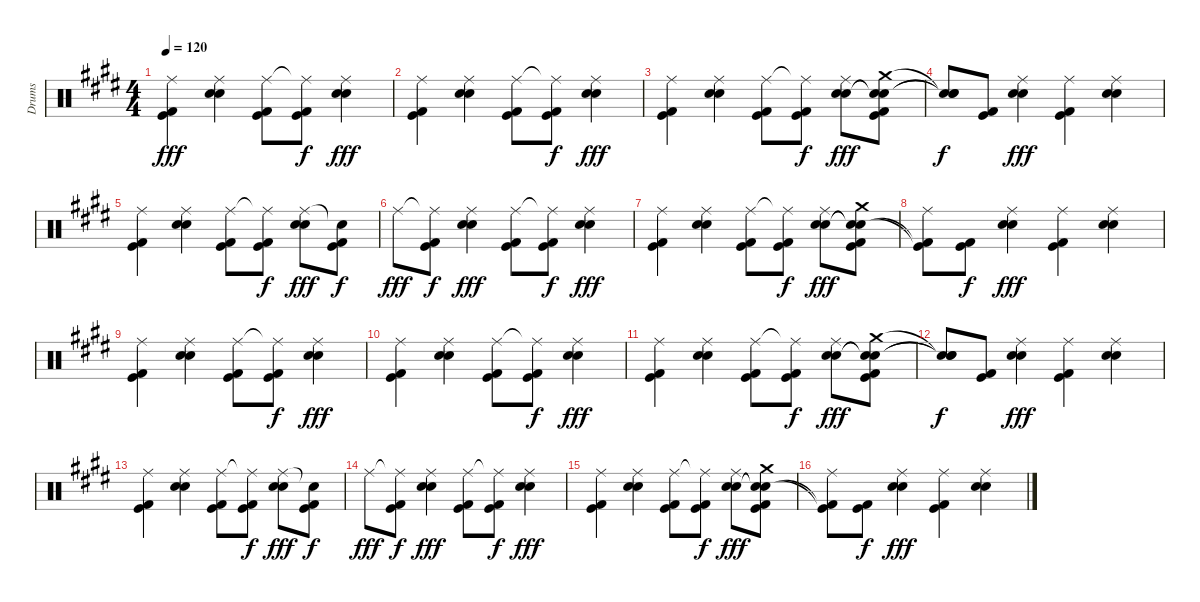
\track ("Drums" "Drums") {instrument percussion}
\staff {score}
\articulation defaults
\ts (4 4)
\tempo 120
\clef neutral
\ks e
("Ride (middle)" "Kick (hit)" "Kick (hit) 2").4{dy fff} ("Ride (middle)" "Electric Snare (hit)" "Snare (hit) 2").4 ("Ride (middle)" "Kick (hit)" "Kick (hit) 2").8 ("Ride (middle)"{t} "Kick (hit)" "Kick (hit) 2").8{dy f} ("Ride (middle)" "Electric Snare (hit)" "Snare (hit) 2").4{dy fff} |
("Ride (middle)" "Kick (hit)" "Kick (hit) 2").4 ("Ride (middle)" "Electric Snare (hit)" "Snare (hit) 2").4 ("Ride (middle)" "Kick (hit)" "Kick (hit) 2").8 ("Ride (middle)"{t} "Kick (hit)" "Kick (hit) 2").8{dy f} ("Ride (middle)" "Electric Snare (hit)" "Snare (hit) 2").4{dy fff} |
("Ride (middle)" "Kick (hit)" "Kick (hit) 2").4 ("Ride (middle)" "Electric Snare (hit)" "Snare (hit) 2").4 ("Ride (middle)" "Kick (hit)" "Kick (hit) 2").8 ("Ride (middle)"{t} "Kick (hit)" "Kick (hit) 2").8{dy f} ("Ride (middle)" "Electric Snare (hit)" "Snare (hit) 2").8{dy fff} ("Crash medium (hit)" "Snare (hit)"{t} "Snare (hit)"{t} "Kick (hit)" "Kick (hit) 2").8 |
("Snare (hit)"{t} "Snare (hit)"{t} "Snare (hit)"{t}).8{dy f volume 11} ("Kick (hit)" "Kick (hit) 2").8 ("Ride (middle)" "Electric Snare (hit)" "Snare (hit) 2").4{dy fff} ("Ride (middle)" "Kick (hit)" "Kick (hit) 2").4 ("Ride (middle)" "Electric Snare (hit)" "Snare (hit) 2").4 |
("Ride (middle)" "Kick (hit)" "Kick (hit) 2").4{volume 10} ("Ride (middle)" "Electric Snare (hit)" "Snare (hit) 2").4 ("Ride (middle)" "Kick (hit)" "Kick (hit) 2").8 ("Ride (middle)"{t} "Kick (hit)" "Kick (hit) 2").8{dy f} ("Ride (middle)" "Electric Snare (hit)" "Snare (hit) 2").8{dy fff} ("Snare (hit)"{t} "Kick (hit)" "Kick (hit) 2").8{dy f} |
"Ride (middle)".8{dy fff volume 9} ("Ride (middle)"{t} "Kick (hit)" "Kick (hit) 2").8{dy f} ("Ride (middle)" "Electric Snare (hit)" "Snare (hit) 2").4{dy fff} ("Ride (middle)" "Kick (hit)" "Kick (hit) 2").8 ("Ride (middle)"{t} "Kick (hit)" "Kick (hit) 2").8{dy f} ("Ride (middle)" "Electric Snare (hit)" "Snare (hit) 2").4{dy fff} |
("Ride (middle)" "Kick (hit)" "Kick (hit) 2").4{volume 8} ("Ride (middle)" "Electric Snare (hit)" "Snare (hit) 2").4 ("Ride (middle)" "Kick (hit)" "Kick (hit) 2").8 ("Ride (middle)"{t} "Kick (hit)" "Kick (hit) 2").8{dy f} ("Ride (middle)" "Electric Snare (hit)" "Snare (hit) 2").8{dy fff} ("Crash medium (hit)" "Snare (hit)"{t} "Snare (hit)"{t} "Kick (hit)" "Kick (hit) 2").8 |
("Ride (middle)" "Kick (hit)"{t} "Kick (hit) 2"{t}).8{volume 7} ("Kick (hit)" "Kick (hit) 2").8{dy f} ("Ride (middle)" "Electric Snare (hit)" "Snare (hit) 2").4{dy fff} ("Ride (middle)" "Kick (hit)" "Kick (hit) 2").4 ("Ride (middle)" "Electric Snare (hit)" "Snare (hit) 2").4 |
("Ride (middle)" "Kick (hit)" "Kick (hit) 2").4{volume 6} ("Ride (middle)" "Electric Snare (hit)" "Snare (hit) 2").4 ("Ride (middle)" "Kick (hit)" "Kick (hit) 2").8 ("Ride (middle)"{t} "Kick (hit)" "Kick (hit) 2").8{dy f} ("Ride (middle)" "Electric Snare (hit)" "Snare (hit) 2").4{dy fff} |
("Ride (middle)" "Kick (hit)" "Kick (hit) 2").4{volume 5} ("Ride (middle)" "Electric Snare (hit)" "Snare (hit) 2").4 ("Ride (middle)" "Kick (hit)" "Kick (hit) 2").8 ("Ride (middle)"{t} "Kick (hit)" "Kick (hit) 2").8{dy f} ("Ride (middle)" "Electric Snare (hit)" "Snare (hit) 2").4{dy fff} |
("Ride (middle)" "Kick (hit)" "Kick (hit) 2").4{volume 4} ("Ride (middle)" "Electric Snare (hit)" "Snare (hit) 2").4 ("Ride (middle)" "Kick (hit)" "Kick (hit) 2").8 ("Ride (middle)"{t} "Kick (hit)" "Kick (hit) 2").8{dy f} ("Ride (middle)" "Electric Snare (hit)" "Snare (hit) 2").8{dy fff} ("Crash medium (hit)" "Snare (hit)"{t} "Snare (hit)"{t} "Kick (hit)" "Kick (hit) 2").8 |
("Snare (hit)"{t} "Snare (hit)"{t} "Snare (hit)"{t}).8{dy f volume 3} ("Kick (hit)" "Kick (hit) 2").8 ("Ride (middle)" "Electric Snare (hit)" "Snare (hit) 2").4{dy fff} ("Ride (middle)" "Kick (hit)" "Kick (hit) 2").4 ("Ride (middle)" "Electric Snare (hit)" "Snare (hit) 2").4 |
("Ride (middle)" "Kick (hit)" "Kick (hit) 2").4 ("Ride (middle)" "Electric Snare (hit)" "Snare (hit) 2").4 ("Ride (middle)" "Kick (hit)" "Kick (hit) 2").8 ("Ride (middle)"{t} "Kick (hit)" "Kick (hit) 2").8{dy f} ("Ride (middle)" "Electric Snare (hit)" "Snare (hit) 2").8{dy fff} ("Snare (hit)"{t} "Kick (hit)" "Kick (hit) 2").8{dy f} |
"Ride (middle)".8{dy fff} ("Ride (middle)"{t} "Kick (hit)" "Kick (hit) 2").8{dy f} ("Ride (middle)" "Electric Snare (hit)" "Snare (hit) 2").4{dy fff} ("Ride (middle)" "Kick (hit)" "Kick (hit) 2").8 ("Ride (middle)"{t} "Kick (hit)" "Kick (hit) 2").8{dy f} ("Ride (middle)" "Electric Snare (hit)" "Snare (hit) 2").4{dy fff} |
("Ride (middle)" "Kick (hit)" "Kick (hit) 2").4{volume 2} ("Ride (middle)" "Electric Snare (hit)" "Snare (hit) 2").4 ("Ride (middle)" "Kick (hit)" "Kick (hit) 2").8 ("Ride (middle)"{t} "Kick (hit)" "Kick (hit) 2").8{dy f} ("Ride (middle)" "Electric Snare (hit)" "Snare (hit) 2").8{dy fff} ("Crash medium (hit)" "Snare (hit)"{t} "Snare (hit)"{t} "Kick (hit)" "Kick (hit) 2").8 |
("Ride (middle)" "Kick (hit)"{t} "Kick (hit) 2"{t}).8 ("Kick (hit)" "Kick (hit) 2").8{dy f} ("Ride (middle)" "Electric Snare (hit)" "Snare (hit) 2").4{dy fff} ("Ride (middle)" "Kick (hit)" "Kick (hit) 2").4 ("Ride (middle)" "Electric Snare (hit)" "Snare (hit) 2").4
